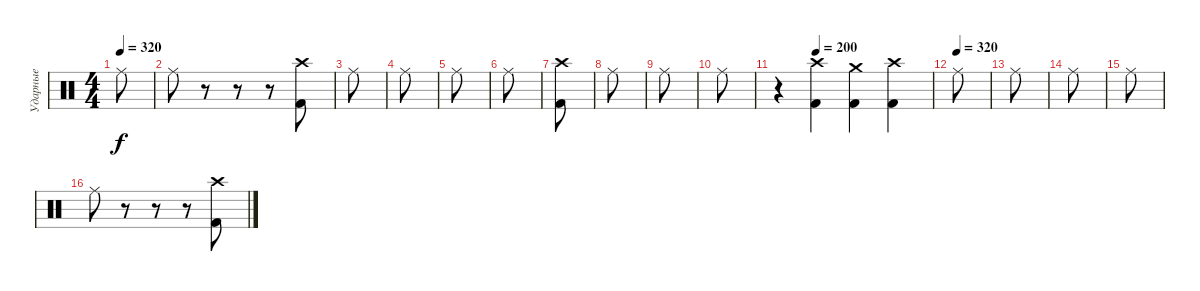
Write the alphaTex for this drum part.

\track ("Ударные" "Ударные") {instrument percussion}
\staff {score}
\articulation defaults
\ts (4 4)
\tempo 320
\clef neutral
\ks c "Ride (middle)".8{dy f}
|
"Ride (middle)".8 r.8 r.8 r.8 ("Kick (hit) 2" "Crash high (hit)").8 |
"Ride (middle)".8 |
"Ride (middle)".8 |
"Ride (middle)".8 |
"Ride (middle)".8 |
("Kick (hit) 2" "Crash high (hit)").8 |
"Ride (middle)".8 |
"Ride (middle)".8 |
"Ride (middle)".8 |
\tempo (200 0.25)
r.4 ("Kick (hit) 2" "Crash high (hit)").4 ("Kick (hit) 2" "Crash medium (hit)").4 ("Kick (hit) 2" "Crash high (hit)").4 |
\tempo (320)
"Ride (middle)".8 |
"Ride (middle)".8 |
"Ride (middle)".8 |
"Ride (middle)".8 |
"Ride (middle)".8 r.8 r.8 r.8 ("Kick (hit) 2" "Crash high (hit)").8
